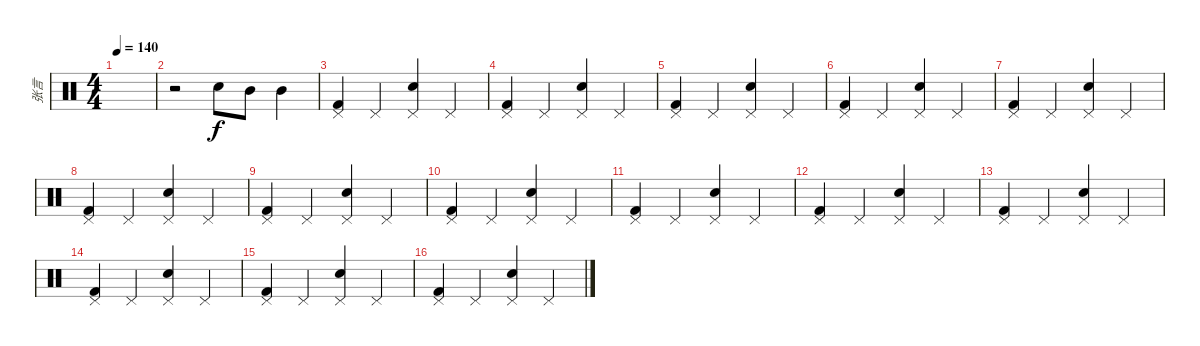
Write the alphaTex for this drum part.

\track ("张言" "张言") {instrument percussion}
\staff {score}
\articulation defaults
\ts (4 4)
\tempo 140
\clef neutral
\ks c
|
r.2 "Snare (hit) 2".8 "Mid Tom (hit)".8 "Mid Tom (hit)".4 |
("Kick (hit) 2" "Pedal Hi-Hat (hit)").4 "Pedal Hi-Hat (hit)".4 ("Snare (hit) 2" "Pedal Hi-Hat (hit)").4 "Pedal Hi-Hat (hit)".4 |
("Kick (hit) 2" "Pedal Hi-Hat (hit)").4 "Pedal Hi-Hat (hit)".4 ("Snare (hit) 2" "Pedal Hi-Hat (hit)").4 "Pedal Hi-Hat (hit)".4 |
("Kick (hit) 2" "Pedal Hi-Hat (hit)").4 "Pedal Hi-Hat (hit)".4 ("Snare (hit) 2" "Pedal Hi-Hat (hit)").4 "Pedal Hi-Hat (hit)".4 |
("Kick (hit) 2" "Pedal Hi-Hat (hit)").4 "Pedal Hi-Hat (hit)".4 ("Snare (hit) 2" "Pedal Hi-Hat (hit)").4 "Pedal Hi-Hat (hit)".4 |
("Kick (hit) 2" "Pedal Hi-Hat (hit)").4 "Pedal Hi-Hat (hit)".4 ("Snare (hit) 2" "Pedal Hi-Hat (hit)").4 "Pedal Hi-Hat (hit)".4 |
("Kick (hit) 2" "Pedal Hi-Hat (hit)").4 "Pedal Hi-Hat (hit)".4 ("Snare (hit) 2" "Pedal Hi-Hat (hit)").4 "Pedal Hi-Hat (hit)".4 |
("Kick (hit) 2" "Pedal Hi-Hat (hit)").4 "Pedal Hi-Hat (hit)".4 ("Snare (hit) 2" "Pedal Hi-Hat (hit)").4 "Pedal Hi-Hat (hit)".4 |
("Kick (hit) 2" "Pedal Hi-Hat (hit)").4 "Pedal Hi-Hat (hit)".4 ("Snare (hit) 2" "Pedal Hi-Hat (hit)").4 "Pedal Hi-Hat (hit)".4 |
("Kick (hit) 2" "Pedal Hi-Hat (hit)").4 "Pedal Hi-Hat (hit)".4 ("Snare (hit) 2" "Pedal Hi-Hat (hit)").4 "Pedal Hi-Hat (hit)".4 |
("Kick (hit) 2" "Pedal Hi-Hat (hit)").4 "Pedal Hi-Hat (hit)".4 ("Snare (hit) 2" "Pedal Hi-Hat (hit)").4 "Pedal Hi-Hat (hit)".4 |
("Kick (hit) 2" "Pedal Hi-Hat (hit)").4 "Pedal Hi-Hat (hit)".4 ("Snare (hit) 2" "Pedal Hi-Hat (hit)").4 "Pedal Hi-Hat (hit)".4 |
("Kick (hit) 2" "Pedal Hi-Hat (hit)").4 "Pedal Hi-Hat (hit)".4 ("Snare (hit) 2" "Pedal Hi-Hat (hit)").4 "Pedal Hi-Hat (hit)".4 |
("Kick (hit) 2" "Pedal Hi-Hat (hit)").4 "Pedal Hi-Hat (hit)".4 ("Snare (hit) 2" "Pedal Hi-Hat (hit)").4 "Pedal Hi-Hat (hit)".4 |
("Kick (hit) 2" "Pedal Hi-Hat (hit)").4 "Pedal Hi-Hat (hit)".4 ("Snare (hit) 2" "Pedal Hi-Hat (hit)").4 "Pedal Hi-Hat (hit)".4
